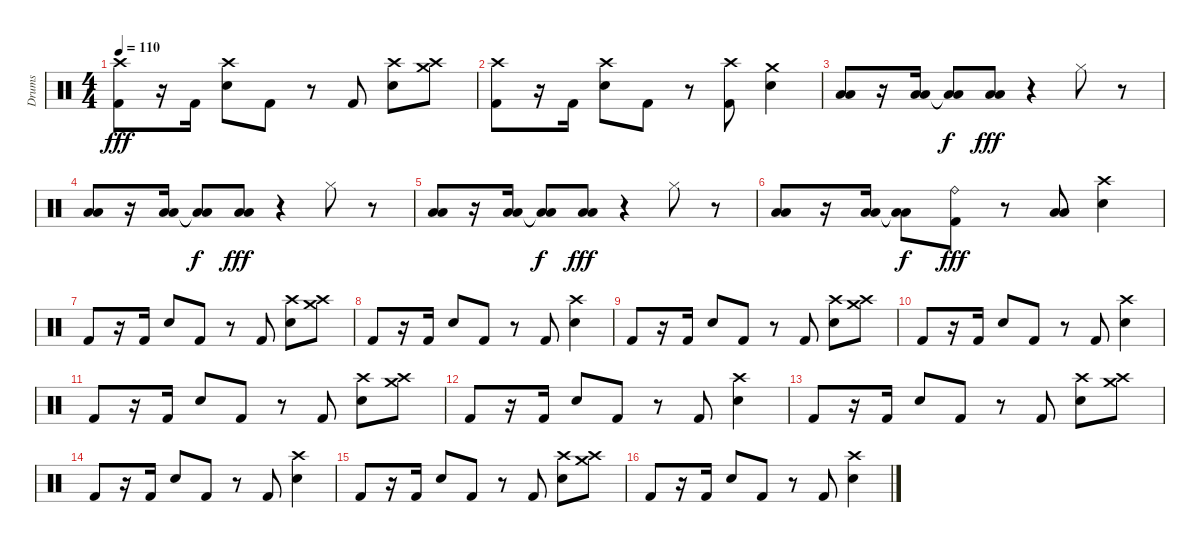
\track ("Drums" "Drums") {instrument percussion}
\staff {score}
\articulation defaults
\ts (4 4)
\tempo 110
\clef neutral
\ks c
("Crash high (hit)" "Kick (hit) 2").8{dy fff} r.16 "Kick (hit) 2".16 ("Crash high (hit)" "Electric Snare (hit)").8 "Kick (hit) 2".8 r.8 "Kick (hit) 2".8 ("Crash high (hit)" "Electric Snare (hit)").8 ("Crash high (hit)" "Crash medium (hit)").8 |
("Crash high (hit)" "Kick (hit) 2").8 r.16 "Kick (hit) 2".16 ("Crash high (hit)" "Electric Snare (hit)").8 "Kick (hit) 2".8 r.8 ("Crash high (hit)" "Kick (hit) 2").8 ("Crash medium (hit)" "Electric Snare (hit)").4 |
("Low Tom (hit)" "Low Floor Tom (hit)").8 r.16 ("Low Tom (hit)" "Low Floor Tom (hit)").16 ("Low Tom (hit)"{t} "Low Floor Tom (hit)"{t}).8{dy f} ("Low Tom (hit)" "Low Floor Tom (hit)").8{dy fff} r.4 "Hi-Hat (closed)".8 r.8 |
("Low Tom (hit)" "Low Floor Tom (hit)").8 r.16 ("Low Tom (hit)" "Low Floor Tom (hit)").16 ("Low Tom (hit)"{t} "Low Floor Tom (hit)"{t}).8{dy f} ("Low Tom (hit)" "Low Floor Tom (hit)").8{dy fff} r.4 "Hi-Hat (closed)".8 r.8 |
("Low Tom (hit)" "Low Floor Tom (hit)").8 r.16 ("Low Tom (hit)" "Low Floor Tom (hit)").16 ("Low Tom (hit)"{t} "Low Floor Tom (hit)"{t}).8{dy f} ("Low Tom (hit)" "Low Floor Tom (hit)").8{dy fff} r.4 "Hi-Hat (closed)".8 r.8 |
("Low Tom (hit)" "Low Floor Tom (hit)").8 r.16 ("Low Tom (hit)" "Low Floor Tom (hit)").16 ("Low Tom (hit)"{t} "Low Floor Tom (hit)"{t}).8{dy f} ("Ride (bell)" "Kick (hit) 2").8{dy fff} r.8 ("Low Tom (hit)" "Low Floor Tom (hit)").8 ("Crash high (hit)" "Electric Snare (hit)").4 |
"Kick (hit) 2".8 r.16 "Kick (hit) 2".16 "Electric Snare (hit)".8 "Kick (hit) 2".8 r.8 "Kick (hit) 2".8 ("Crash high (hit)" "Electric Snare (hit)").8 ("Crash high (hit)" "Crash medium (hit)").8 |
"Kick (hit) 2".8 r.16 "Kick (hit) 2".16 "Electric Snare (hit)".8 "Kick (hit) 2".8 r.8 "Kick (hit) 2".8 ("Crash high (hit)" "Electric Snare (hit)").4 |
"Kick (hit) 2".8 r.16 "Kick (hit) 2".16 "Electric Snare (hit)".8 "Kick (hit) 2".8 r.8 "Kick (hit) 2".8 ("Crash high (hit)" "Electric Snare (hit)").8 ("Crash high (hit)" "Crash medium (hit)").8 |
"Kick (hit) 2".8 r.16 "Kick (hit) 2".16 "Electric Snare (hit)".8 "Kick (hit) 2".8 r.8 "Kick (hit) 2".8 ("Crash high (hit)" "Electric Snare (hit)").4 |
"Kick (hit) 2".8 r.16 "Kick (hit) 2".16 "Electric Snare (hit)".8 "Kick (hit) 2".8 r.8 "Kick (hit) 2".8 ("Crash high (hit)" "Electric Snare (hit)").8 ("Crash high (hit)" "Crash medium (hit)").8 |
"Kick (hit) 2".8 r.16 "Kick (hit) 2".16 "Electric Snare (hit)".8 "Kick (hit) 2".8 r.8 "Kick (hit) 2".8 ("Crash high (hit)" "Electric Snare (hit)").4 |
"Kick (hit) 2".8 r.16 "Kick (hit) 2".16 "Electric Snare (hit)".8 "Kick (hit) 2".8 r.8 "Kick (hit) 2".8 ("Crash high (hit)" "Electric Snare (hit)").8 ("Crash high (hit)" "Crash medium (hit)").8 |
"Kick (hit) 2".8 r.16 "Kick (hit) 2".16 "Electric Snare (hit)".8 "Kick (hit) 2".8 r.8 "Kick (hit) 2".8 ("Crash high (hit)" "Electric Snare (hit)").4 |
"Kick (hit) 2".8 r.16 "Kick (hit) 2".16 "Electric Snare (hit)".8 "Kick (hit) 2".8 r.8 "Kick (hit) 2".8 ("Crash high (hit)" "Electric Snare (hit)").8 ("Crash high (hit)" "Crash medium (hit)").8 |
"Kick (hit) 2".8 r.16 "Kick (hit) 2".16 "Electric Snare (hit)".8 "Kick (hit) 2".8 r.8 "Kick (hit) 2".8 ("Crash high (hit)" "Electric Snare (hit)").4
